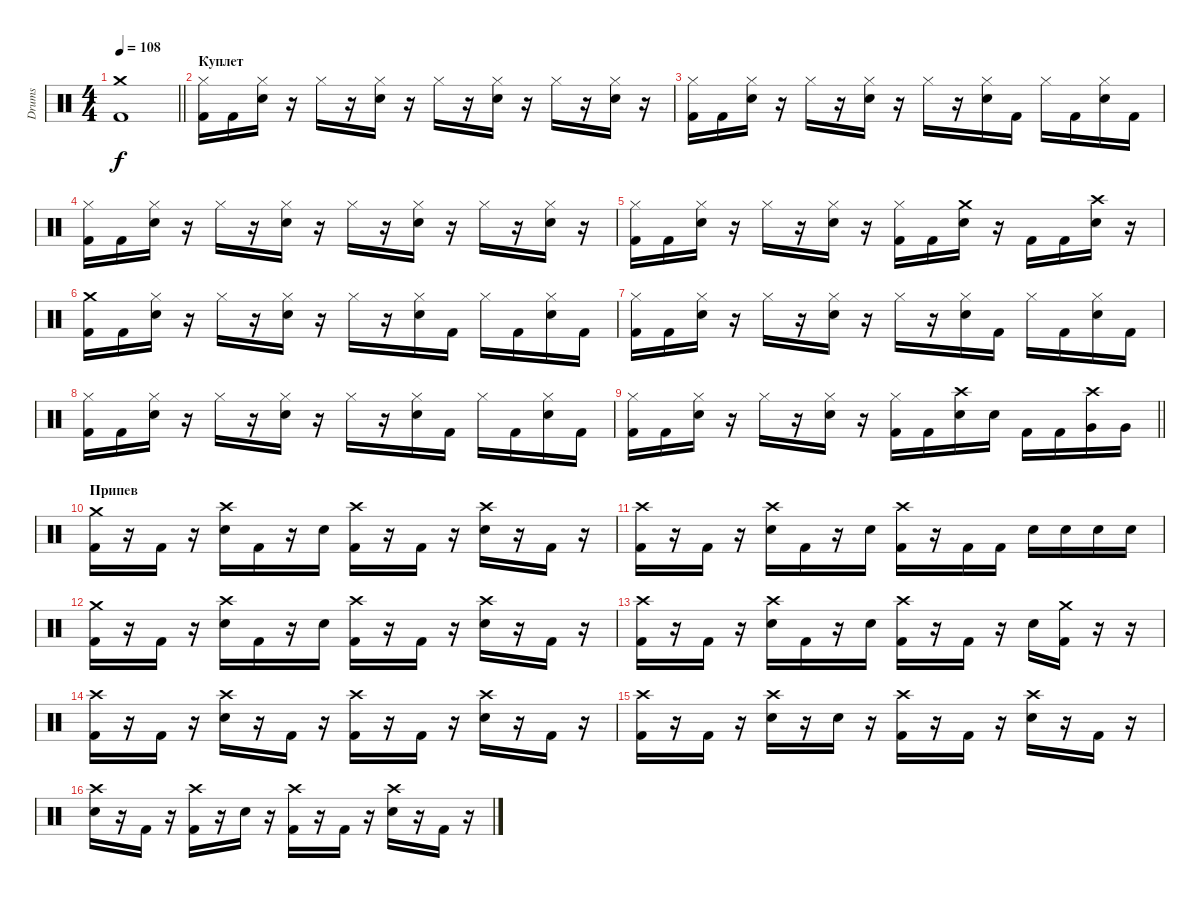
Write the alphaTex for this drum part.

\track ("Drums" "Drums") {instrument percussion}
\staff {score}
\articulation defaults
\ts (4 4)
\tempo 108
\clef neutral
\barLineRight lightlight
\ks c
("Crash medium (hit)" "Kick (hit) 2").1{dy f} |
\section ("" "Куплет")
("Hi-Hat (closed)" "Kick (hit) 2").16 "Kick (hit) 2".16 ("Hi-Hat (closed)" "Electric Snare (hit)").16 r.16 "Hi-Hat (closed)".16 r.16 ("Hi-Hat (closed)" "Electric Snare (hit)").16 r.16 "Hi-Hat (closed)".16 r.16 ("Hi-Hat (closed)" "Electric Snare (hit)").16 r.16 "Hi-Hat (closed)".16 r.16 ("Hi-Hat (closed)" "Electric Snare (hit)").16 r.16 |
("Hi-Hat (closed)" "Kick (hit) 2").16 "Kick (hit) 2".16 ("Hi-Hat (closed)" "Electric Snare (hit)").16 r.16 "Hi-Hat (closed)".16 r.16 ("Hi-Hat (closed)" "Electric Snare (hit)").16 r.16 "Hi-Hat (closed)".16 r.16 ("Hi-Hat (closed)" "Electric Snare (hit)").16 "Kick (hit) 2".16 "Hi-Hat (closed)".16 "Kick (hit) 2".16 ("Hi-Hat (closed)" "Electric Snare (hit)").16 "Kick (hit) 2".16 |
("Hi-Hat (closed)" "Kick (hit) 2").16 "Kick (hit) 2".16 ("Hi-Hat (closed)" "Electric Snare (hit)").16 r.16 "Hi-Hat (closed)".16 r.16 ("Hi-Hat (closed)" "Electric Snare (hit)").16 r.16 "Hi-Hat (closed)".16 r.16 ("Hi-Hat (closed)" "Electric Snare (hit)").16 r.16 "Hi-Hat (closed)".16 r.16 ("Hi-Hat (closed)" "Electric Snare (hit)").16 r.16 |
("Hi-Hat (closed)" "Kick (hit) 2").16 "Kick (hit) 2".16 ("Hi-Hat (closed)" "Electric Snare (hit)").16 r.16 "Hi-Hat (closed)".16 r.16 ("Hi-Hat (closed)" "Electric Snare (hit)").16 r.16 ("Hi-Hat (closed)" "Kick (hit) 2").16 "Kick (hit) 2".16 ("Crash medium (hit)" "Electric Snare (hit)").16 r.16 "Kick (hit) 2".16 "Kick (hit) 2".16 ("Crash high (hit)" "Electric Snare (hit)").16 r.16 |
("Crash medium (hit)" "Kick (hit) 2").16 "Kick (hit) 2".16 ("Hi-Hat (closed)" "Electric Snare (hit)").16 r.16 "Hi-Hat (closed)".16 r.16 ("Hi-Hat (closed)" "Electric Snare (hit)").16 r.16 "Hi-Hat (closed)".16 r.16 ("Hi-Hat (closed)" "Electric Snare (hit)").16 "Kick (hit) 2".16 "Hi-Hat (closed)".16 "Kick (hit) 2".16 ("Hi-Hat (closed)" "Electric Snare (hit)").16 "Kick (hit) 2".16 |
("Hi-Hat (closed)" "Kick (hit) 2").16 "Kick (hit) 2".16 ("Hi-Hat (closed)" "Electric Snare (hit)").16 r.16 "Hi-Hat (closed)".16 r.16 ("Hi-Hat (closed)" "Electric Snare (hit)").16 r.16 "Hi-Hat (closed)".16 r.16 ("Hi-Hat (closed)" "Electric Snare (hit)").16 "Kick (hit) 2".16 "Hi-Hat (closed)".16 "Kick (hit) 2".16 ("Hi-Hat (closed)" "Electric Snare (hit)").16 "Kick (hit) 2".16 |
("Hi-Hat (closed)" "Kick (hit) 2").16 "Kick (hit) 2".16 ("Hi-Hat (closed)" "Electric Snare (hit)").16 r.16 "Hi-Hat (closed)".16 r.16 ("Hi-Hat (closed)" "Electric Snare (hit)").16 r.16 "Hi-Hat (closed)".16 r.16 ("Hi-Hat (closed)" "Electric Snare (hit)").16 "Kick (hit) 2".16 "Hi-Hat (closed)".16 "Kick (hit) 2".16 ("Hi-Hat (closed)" "Electric Snare (hit)").16 "Kick (hit) 2".16 |
\barLineRight lightlight
("Hi-Hat (closed)" "Kick (hit) 2").16 "Kick (hit) 2".16 ("Hi-Hat (closed)" "Electric Snare (hit)").16 r.16 "Hi-Hat (closed)".16 r.16 ("Hi-Hat (closed)" "Electric Snare (hit)").16 r.16 ("Hi-Hat (closed)" "Kick (hit) 2").16 "Kick (hit) 2".16 ("Crash high (hit)" "Electric Snare (hit)").16 "Electric Snare (hit)".16 "Kick (hit) 2".16 "Kick (hit) 2".16 ("Crash high (hit)" "Very Low Tom (hit)").16 "Very Low Tom (hit)".16 |
\section ("" "Припев")
("Crash medium (hit)" "Kick (hit) 2").16 r.16 "Kick (hit) 2".16 r.16 ("Crash high (hit)" "Electric Snare (hit)").16 "Kick (hit) 2".16 r.16 "Electric Snare (hit)".16 ("Crash high (hit)" "Kick (hit) 2").16 r.16 "Kick (hit) 2".16 r.16 ("Crash high (hit)" "Electric Snare (hit)").16 r.16 "Kick (hit) 2".16 r.16 |
("Crash high (hit)" "Kick (hit) 2").16 r.16 "Kick (hit) 2".16 r.16 ("Crash high (hit)" "Electric Snare (hit)").16 "Kick (hit) 2".16 r.16 "Electric Snare (hit)".16 ("Crash high (hit)" "Kick (hit) 2").16 r.16 "Kick (hit) 2".16 "Kick (hit) 2".16 "Electric Snare (hit)".16 "Electric Snare (hit)".16 "Electric Snare (hit)".16 "Electric Snare (hit)".16 |
("Crash medium (hit)" "Kick (hit) 2").16 r.16 "Kick (hit) 2".16 r.16 ("Crash high (hit)" "Electric Snare (hit)").16 "Kick (hit) 2".16 r.16 "Electric Snare (hit)".16 ("Crash high (hit)" "Kick (hit) 2").16 r.16 "Kick (hit) 2".16 r.16 ("Crash high (hit)" "Electric Snare (hit)").16 r.16 "Kick (hit) 2".16 r.16 |
("Crash high (hit)" "Kick (hit) 2").16 r.16 "Kick (hit) 2".16 r.16 ("Crash high (hit)" "Electric Snare (hit)").16 "Kick (hit) 2".16 r.16 "Electric Snare (hit)".16 ("Crash high (hit)" "Kick (hit) 2").16 r.16 "Kick (hit) 2".16 r.16 "Electric Snare (hit)".16 ("Crash medium (hit)" "Kick (hit) 2").16 r.16 r.16 |
("Crash high (hit)" "Kick (hit) 2").16 r.16 "Kick (hit) 2".16 r.16 ("Crash high (hit)" "Electric Snare (hit)").16 r.16 "Kick (hit) 2".16 r.16 ("Crash high (hit)" "Kick (hit) 2").16 r.16 "Kick (hit) 2".16 r.16 ("Crash high (hit)" "Electric Snare (hit)").16 r.16 "Kick (hit) 2".16 r.16 |
("Crash high (hit)" "Kick (hit) 2").16 r.16 "Kick (hit) 2".16 r.16 ("Crash high (hit)" "Electric Snare (hit)").16 r.16 "Electric Snare (hit)".16 r.16 ("Crash high (hit)" "Kick (hit) 2").16 r.16 "Kick (hit) 2".16 r.16 ("Crash high (hit)" "Electric Snare (hit)").16 r.16 "Kick (hit) 2".16 r.16 |
("Crash high (hit)" "Electric Snare (hit)").16 r.16 "Kick (hit) 2".16 r.16 ("Crash high (hit)" "Kick (hit) 2").16 r.16 "Electric Snare (hit)".16 r.16 ("Crash high (hit)" "Kick (hit) 2").16 r.16 "Kick (hit) 2".16 r.16 ("Crash high (hit)" "Electric Snare (hit)").16 r.16 "Kick (hit) 2".16 r.16
